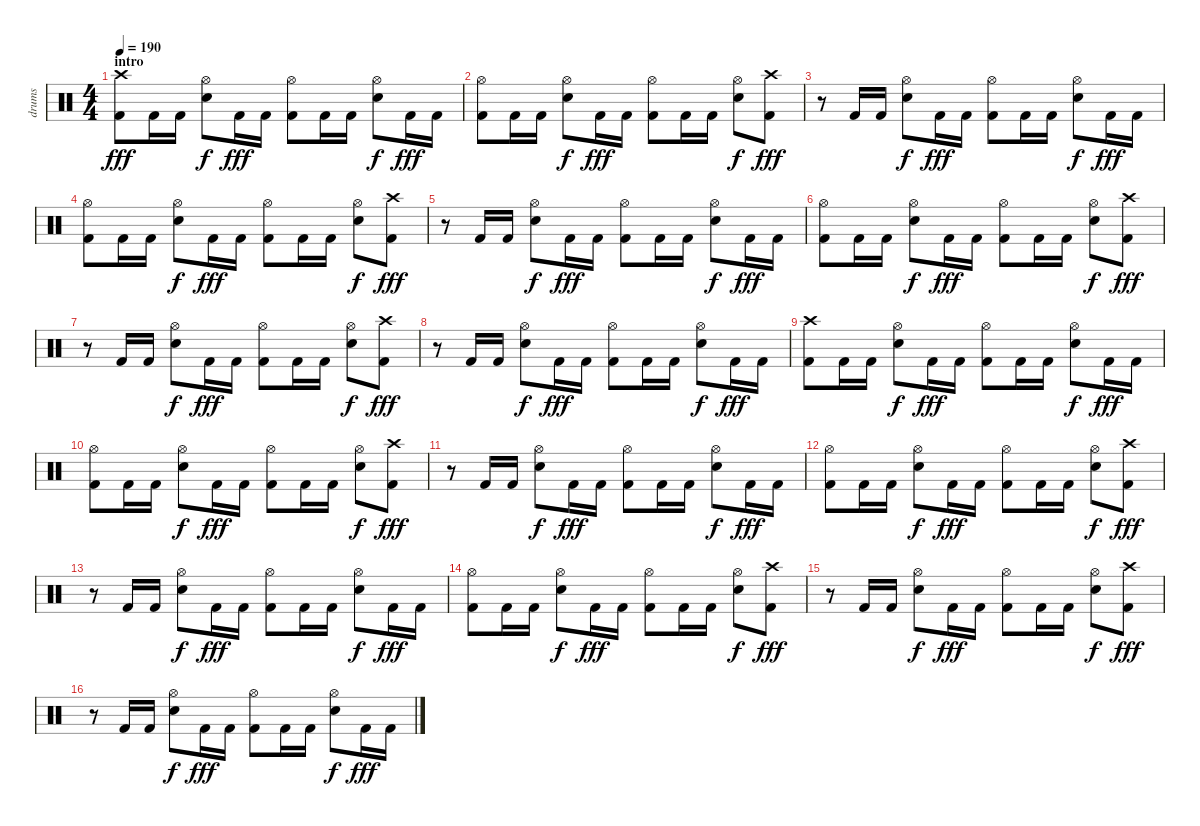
\track ("drums" "drums") {instrument percussion}
\staff {score}
\articulation defaults
\ts (4 4)
\section ("" "intro")
\tempo 190
\clef neutral
\ks c
("Crash high (hit)" "Kick (hit) 2").8{dy fff} "Kick (hit) 2".16 "Kick (hit) 2".16 ("Hi-Hat (open)" "Snare (hit) 2").8{dy f} "Kick (hit) 2".16{dy fff} "Kick (hit) 2".16 ("Hi-Hat (open)" "Kick (hit) 2").8 "Kick (hit) 2".16 "Kick (hit) 2".16 ("Hi-Hat (open)" "Snare (hit) 2").8{dy f} "Kick (hit) 2".16{dy fff} "Kick (hit) 2".16 |
("Hi-Hat (open)" "Kick (hit) 2").8 "Kick (hit) 2".16 "Kick (hit) 2".16 ("Hi-Hat (open)" "Snare (hit) 2").8{dy f} "Kick (hit) 2".16{dy fff} "Kick (hit) 2".16 ("Hi-Hat (open)" "Kick (hit) 2").8 "Kick (hit) 2".16 "Kick (hit) 2".16 ("Hi-Hat (open)" "Snare (hit) 2").8{dy f} ("Crash high (hit)" "Kick (hit) 2").8{dy fff} |
r.8 "Kick (hit) 2".16 "Kick (hit) 2".16 ("Hi-Hat (open)" "Snare (hit) 2").8{dy f} "Kick (hit) 2".16{dy fff} "Kick (hit) 2".16 ("Hi-Hat (open)" "Kick (hit) 2").8 "Kick (hit) 2".16 "Kick (hit) 2".16 ("Hi-Hat (open)" "Snare (hit) 2").8{dy f} "Kick (hit) 2".16{dy fff} "Kick (hit) 2".16 |
("Hi-Hat (open)" "Kick (hit) 2").8 "Kick (hit) 2".16 "Kick (hit) 2".16 ("Hi-Hat (open)" "Snare (hit) 2").8{dy f} "Kick (hit) 2".16{dy fff} "Kick (hit) 2".16 ("Hi-Hat (open)" "Kick (hit) 2").8 "Kick (hit) 2".16 "Kick (hit) 2".16 ("Hi-Hat (open)" "Snare (hit) 2").8{dy f} ("Crash high (hit)" "Kick (hit) 2").8{dy fff} |
r.8 "Kick (hit) 2".16 "Kick (hit) 2".16 ("Hi-Hat (open)" "Snare (hit) 2").8{dy f} "Kick (hit) 2".16{dy fff} "Kick (hit) 2".16 ("Hi-Hat (open)" "Kick (hit) 2").8 "Kick (hit) 2".16 "Kick (hit) 2".16 ("Hi-Hat (open)" "Snare (hit) 2").8{dy f} "Kick (hit) 2".16{dy fff} "Kick (hit) 2".16 |
("Hi-Hat (open)" "Kick (hit) 2").8 "Kick (hit) 2".16 "Kick (hit) 2".16 ("Hi-Hat (open)" "Snare (hit) 2").8{dy f} "Kick (hit) 2".16{dy fff} "Kick (hit) 2".16 ("Hi-Hat (open)" "Kick (hit) 2").8 "Kick (hit) 2".16 "Kick (hit) 2".16 ("Hi-Hat (open)" "Snare (hit) 2").8{dy f} ("Crash high (hit)" "Kick (hit) 2").8{dy fff} |
r.8 "Kick (hit) 2".16 "Kick (hit) 2".16 ("Hi-Hat (open)" "Snare (hit) 2").8{dy f} "Kick (hit) 2".16{dy fff} "Kick (hit) 2".16 ("Hi-Hat (open)" "Kick (hit) 2").8 "Kick (hit) 2".16 "Kick (hit) 2".16 ("Hi-Hat (open)" "Snare (hit) 2").8{dy f} ("Crash high (hit)" "Kick (hit) 2").8{dy fff} |
r.8 "Kick (hit) 2".16 "Kick (hit) 2".16 ("Hi-Hat (open)" "Snare (hit) 2").8{dy f} "Kick (hit) 2".16{dy fff} "Kick (hit) 2".16 ("Hi-Hat (open)" "Kick (hit) 2").8 "Kick (hit) 2".16 "Kick (hit) 2".16 ("Hi-Hat (open)" "Snare (hit) 2").8{dy f} "Kick (hit) 2".16{dy fff} "Kick (hit) 2".16 |
("Crash high (hit)" "Kick (hit) 2").8 "Kick (hit) 2".16 "Kick (hit) 2".16 ("Hi-Hat (open)" "Snare (hit) 2").8{dy f} "Kick (hit) 2".16{dy fff} "Kick (hit) 2".16 ("Hi-Hat (open)" "Kick (hit) 2").8 "Kick (hit) 2".16 "Kick (hit) 2".16 ("Hi-Hat (open)" "Snare (hit) 2").8{dy f} "Kick (hit) 2".16{dy fff} "Kick (hit) 2".16 |
("Hi-Hat (open)" "Kick (hit) 2").8 "Kick (hit) 2".16 "Kick (hit) 2".16 ("Hi-Hat (open)" "Snare (hit) 2").8{dy f} "Kick (hit) 2".16{dy fff} "Kick (hit) 2".16 ("Hi-Hat (open)" "Kick (hit) 2").8 "Kick (hit) 2".16 "Kick (hit) 2".16 ("Hi-Hat (open)" "Snare (hit) 2").8{dy f} ("Crash high (hit)" "Kick (hit) 2").8{dy fff} |
r.8 "Kick (hit) 2".16 "Kick (hit) 2".16 ("Hi-Hat (open)" "Snare (hit) 2").8{dy f} "Kick (hit) 2".16{dy fff} "Kick (hit) 2".16 ("Hi-Hat (open)" "Kick (hit) 2").8 "Kick (hit) 2".16 "Kick (hit) 2".16 ("Hi-Hat (open)" "Snare (hit) 2").8{dy f} "Kick (hit) 2".16{dy fff} "Kick (hit) 2".16 |
("Hi-Hat (open)" "Kick (hit) 2").8 "Kick (hit) 2".16 "Kick (hit) 2".16 ("Hi-Hat (open)" "Snare (hit) 2").8{dy f} "Kick (hit) 2".16{dy fff} "Kick (hit) 2".16 ("Hi-Hat (open)" "Kick (hit) 2").8 "Kick (hit) 2".16 "Kick (hit) 2".16 ("Hi-Hat (open)" "Snare (hit) 2").8{dy f} ("Crash high (hit)" "Kick (hit) 2").8{dy fff} |
r.8 "Kick (hit) 2".16 "Kick (hit) 2".16 ("Hi-Hat (open)" "Snare (hit) 2").8{dy f} "Kick (hit) 2".16{dy fff} "Kick (hit) 2".16 ("Hi-Hat (open)" "Kick (hit) 2").8 "Kick (hit) 2".16 "Kick (hit) 2".16 ("Hi-Hat (open)" "Snare (hit) 2").8{dy f} "Kick (hit) 2".16{dy fff} "Kick (hit) 2".16 |
("Hi-Hat (open)" "Kick (hit) 2").8 "Kick (hit) 2".16 "Kick (hit) 2".16 ("Hi-Hat (open)" "Snare (hit) 2").8{dy f} "Kick (hit) 2".16{dy fff} "Kick (hit) 2".16 ("Hi-Hat (open)" "Kick (hit) 2").8 "Kick (hit) 2".16 "Kick (hit) 2".16 ("Hi-Hat (open)" "Snare (hit) 2").8{dy f} ("Crash high (hit)" "Kick (hit) 2").8{dy fff} |
r.8 "Kick (hit) 2".16 "Kick (hit) 2".16 ("Hi-Hat (open)" "Snare (hit) 2").8{dy f} "Kick (hit) 2".16{dy fff} "Kick (hit) 2".16 ("Hi-Hat (open)" "Kick (hit) 2").8 "Kick (hit) 2".16 "Kick (hit) 2".16 ("Hi-Hat (open)" "Snare (hit) 2").8{dy f} ("Crash high (hit)" "Kick (hit) 2").8{dy fff} |
r.8 "Kick (hit) 2".16 "Kick (hit) 2".16 ("Hi-Hat (open)" "Snare (hit) 2").8{dy f} "Kick (hit) 2".16{dy fff} "Kick (hit) 2".16 ("Hi-Hat (open)" "Kick (hit) 2").8 "Kick (hit) 2".16 "Kick (hit) 2".16 ("Hi-Hat (open)" "Snare (hit) 2").8{dy f} "Kick (hit) 2".16{dy fff} "Kick (hit) 2".16
